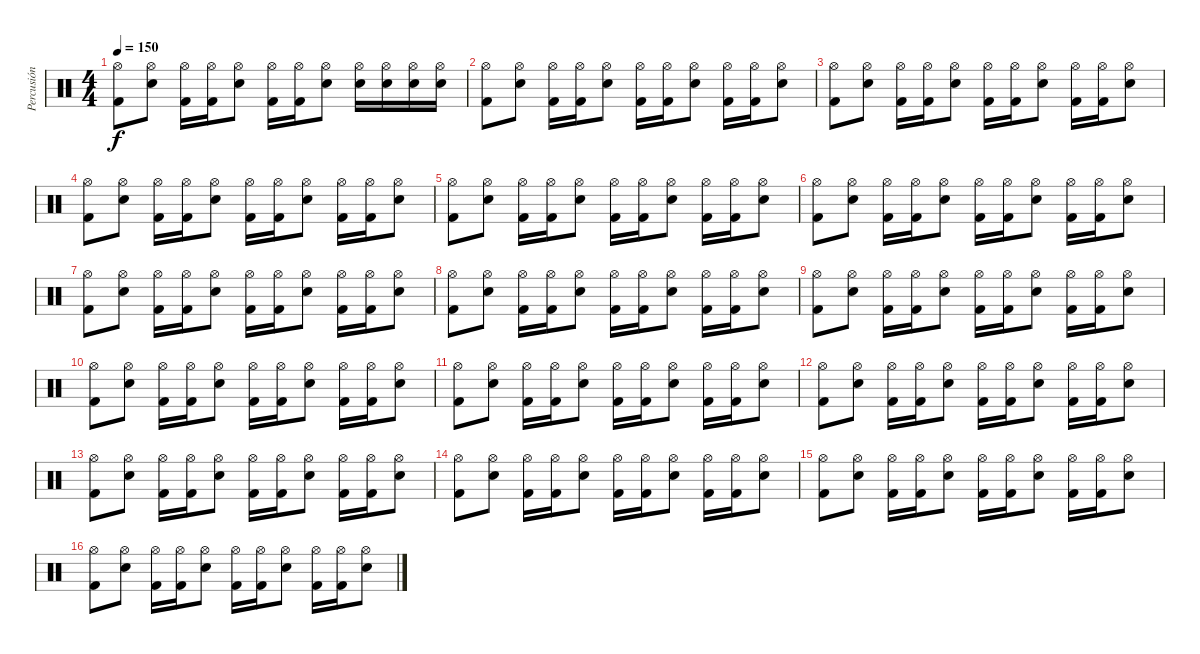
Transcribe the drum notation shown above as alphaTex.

\track ("Percusión" "Percusión") {instrument percussion}
\staff {score}
\articulation defaults
\ts (4 4)
\tempo 150
\clef neutral
\ks c
("Kick (hit) 2" "Hi-Hat (open)").8{dy f} ("Electric Snare (hit)" "Hi-Hat (open)").8 ("Kick (hit) 2" "Hi-Hat (open)").16 ("Kick (hit) 2" "Hi-Hat (open)").16 ("Electric Snare (hit)" "Hi-Hat (open)").8 ("Kick (hit) 2" "Hi-Hat (open)").16 ("Kick (hit) 2" "Hi-Hat (open)").16 ("Electric Snare (hit)" "Hi-Hat (open)").8 ("Electric Snare (hit)" "Hi-Hat (open)").16 ("Electric Snare (hit)" "Hi-Hat (open)").16 ("Electric Snare (hit)" "Hi-Hat (open)").16 ("Electric Snare (hit)" "Hi-Hat (open)").16 |
("Kick (hit) 2" "Hi-Hat (open)").8 ("Electric Snare (hit)" "Hi-Hat (open)").8 ("Kick (hit) 2" "Hi-Hat (open)").16 ("Kick (hit) 2" "Hi-Hat (open)").16 ("Electric Snare (hit)" "Hi-Hat (open)").8 ("Kick (hit) 2" "Hi-Hat (open)").16 ("Kick (hit) 2" "Hi-Hat (open)").16 ("Electric Snare (hit)" "Hi-Hat (open)").8 ("Kick (hit) 2" "Hi-Hat (open)").16 ("Kick (hit) 2" "Hi-Hat (open)").16 ("Electric Snare (hit)" "Hi-Hat (open)").8 |
("Kick (hit) 2" "Hi-Hat (open)").8 ("Electric Snare (hit)" "Hi-Hat (open)").8 ("Kick (hit) 2" "Hi-Hat (open)").16 ("Kick (hit) 2" "Hi-Hat (open)").16 ("Electric Snare (hit)" "Hi-Hat (open)").8 ("Kick (hit) 2" "Hi-Hat (open)").16 ("Kick (hit) 2" "Hi-Hat (open)").16 ("Electric Snare (hit)" "Hi-Hat (open)").8 ("Kick (hit) 2" "Hi-Hat (open)").16 ("Kick (hit) 2" "Hi-Hat (open)").16 ("Electric Snare (hit)" "Hi-Hat (open)").8 |
("Kick (hit) 2" "Hi-Hat (open)").8 ("Electric Snare (hit)" "Hi-Hat (open)").8 ("Kick (hit) 2" "Hi-Hat (open)").16 ("Kick (hit) 2" "Hi-Hat (open)").16 ("Electric Snare (hit)" "Hi-Hat (open)").8 ("Kick (hit) 2" "Hi-Hat (open)").16 ("Kick (hit) 2" "Hi-Hat (open)").16 ("Electric Snare (hit)" "Hi-Hat (open)").8 ("Kick (hit) 2" "Hi-Hat (open)").16 ("Kick (hit) 2" "Hi-Hat (open)").16 ("Electric Snare (hit)" "Hi-Hat (open)").8 |
("Kick (hit) 2" "Hi-Hat (open)").8 ("Electric Snare (hit)" "Hi-Hat (open)").8 ("Kick (hit) 2" "Hi-Hat (open)").16 ("Kick (hit) 2" "Hi-Hat (open)").16 ("Electric Snare (hit)" "Hi-Hat (open)").8 ("Kick (hit) 2" "Hi-Hat (open)").16 ("Kick (hit) 2" "Hi-Hat (open)").16 ("Electric Snare (hit)" "Hi-Hat (open)").8 ("Kick (hit) 2" "Hi-Hat (open)").16 ("Kick (hit) 2" "Hi-Hat (open)").16 ("Electric Snare (hit)" "Hi-Hat (open)").8 |
("Kick (hit) 2" "Hi-Hat (open)").8 ("Electric Snare (hit)" "Hi-Hat (open)").8 ("Kick (hit) 2" "Hi-Hat (open)").16 ("Kick (hit) 2" "Hi-Hat (open)").16 ("Electric Snare (hit)" "Hi-Hat (open)").8 ("Kick (hit) 2" "Hi-Hat (open)").16 ("Kick (hit) 2" "Hi-Hat (open)").16 ("Electric Snare (hit)" "Hi-Hat (open)").8 ("Kick (hit) 2" "Hi-Hat (open)").16 ("Kick (hit) 2" "Hi-Hat (open)").16 ("Electric Snare (hit)" "Hi-Hat (open)").8 |
("Kick (hit) 2" "Hi-Hat (open)").8 ("Electric Snare (hit)" "Hi-Hat (open)").8 ("Kick (hit) 2" "Hi-Hat (open)").16 ("Kick (hit) 2" "Hi-Hat (open)").16 ("Electric Snare (hit)" "Hi-Hat (open)").8 ("Kick (hit) 2" "Hi-Hat (open)").16 ("Kick (hit) 2" "Hi-Hat (open)").16 ("Electric Snare (hit)" "Hi-Hat (open)").8 ("Kick (hit) 2" "Hi-Hat (open)").16 ("Kick (hit) 2" "Hi-Hat (open)").16 ("Electric Snare (hit)" "Hi-Hat (open)").8 |
("Kick (hit) 2" "Hi-Hat (open)").8 ("Electric Snare (hit)" "Hi-Hat (open)").8 ("Kick (hit) 2" "Hi-Hat (open)").16 ("Kick (hit) 2" "Hi-Hat (open)").16 ("Electric Snare (hit)" "Hi-Hat (open)").8 ("Kick (hit) 2" "Hi-Hat (open)").16 ("Kick (hit) 2" "Hi-Hat (open)").16 ("Electric Snare (hit)" "Hi-Hat (open)").8 ("Kick (hit) 2" "Hi-Hat (open)").16 ("Kick (hit) 2" "Hi-Hat (open)").16 ("Electric Snare (hit)" "Hi-Hat (open)").8 |
("Kick (hit) 2" "Hi-Hat (open)").8 ("Electric Snare (hit)" "Hi-Hat (open)").8 ("Kick (hit) 2" "Hi-Hat (open)").16 ("Kick (hit) 2" "Hi-Hat (open)").16 ("Electric Snare (hit)" "Hi-Hat (open)").8 ("Kick (hit) 2" "Hi-Hat (open)").16 ("Kick (hit) 2" "Hi-Hat (open)").16 ("Electric Snare (hit)" "Hi-Hat (open)").8 ("Kick (hit) 2" "Hi-Hat (open)").16 ("Kick (hit) 2" "Hi-Hat (open)").16 ("Electric Snare (hit)" "Hi-Hat (open)").8 |
("Kick (hit) 2" "Hi-Hat (open)").8 ("Electric Snare (hit)" "Hi-Hat (open)").8 ("Kick (hit) 2" "Hi-Hat (open)").16 ("Kick (hit) 2" "Hi-Hat (open)").16 ("Electric Snare (hit)" "Hi-Hat (open)").8 ("Kick (hit) 2" "Hi-Hat (open)").16 ("Kick (hit) 2" "Hi-Hat (open)").16 ("Electric Snare (hit)" "Hi-Hat (open)").8 ("Kick (hit) 2" "Hi-Hat (open)").16 ("Kick (hit) 2" "Hi-Hat (open)").16 ("Electric Snare (hit)" "Hi-Hat (open)").8 |
("Kick (hit) 2" "Hi-Hat (open)").8 ("Electric Snare (hit)" "Hi-Hat (open)").8 ("Kick (hit) 2" "Hi-Hat (open)").16 ("Kick (hit) 2" "Hi-Hat (open)").16 ("Electric Snare (hit)" "Hi-Hat (open)").8 ("Kick (hit) 2" "Hi-Hat (open)").16 ("Kick (hit) 2" "Hi-Hat (open)").16 ("Electric Snare (hit)" "Hi-Hat (open)").8 ("Kick (hit) 2" "Hi-Hat (open)").16 ("Kick (hit) 2" "Hi-Hat (open)").16 ("Electric Snare (hit)" "Hi-Hat (open)").8 |
("Kick (hit) 2" "Hi-Hat (open)").8 ("Electric Snare (hit)" "Hi-Hat (open)").8 ("Kick (hit) 2" "Hi-Hat (open)").16 ("Kick (hit) 2" "Hi-Hat (open)").16 ("Electric Snare (hit)" "Hi-Hat (open)").8 ("Kick (hit) 2" "Hi-Hat (open)").16 ("Kick (hit) 2" "Hi-Hat (open)").16 ("Electric Snare (hit)" "Hi-Hat (open)").8 ("Kick (hit) 2" "Hi-Hat (open)").16 ("Kick (hit) 2" "Hi-Hat (open)").16 ("Electric Snare (hit)" "Hi-Hat (open)").8 |
("Kick (hit) 2" "Hi-Hat (open)").8 ("Electric Snare (hit)" "Hi-Hat (open)").8 ("Kick (hit) 2" "Hi-Hat (open)").16 ("Kick (hit) 2" "Hi-Hat (open)").16 ("Electric Snare (hit)" "Hi-Hat (open)").8 ("Kick (hit) 2" "Hi-Hat (open)").16 ("Kick (hit) 2" "Hi-Hat (open)").16 ("Electric Snare (hit)" "Hi-Hat (open)").8 ("Kick (hit) 2" "Hi-Hat (open)").16 ("Kick (hit) 2" "Hi-Hat (open)").16 ("Electric Snare (hit)" "Hi-Hat (open)").8 |
("Kick (hit) 2" "Hi-Hat (open)").8 ("Electric Snare (hit)" "Hi-Hat (open)").8 ("Kick (hit) 2" "Hi-Hat (open)").16 ("Kick (hit) 2" "Hi-Hat (open)").16 ("Electric Snare (hit)" "Hi-Hat (open)").8 ("Kick (hit) 2" "Hi-Hat (open)").16 ("Kick (hit) 2" "Hi-Hat (open)").16 ("Electric Snare (hit)" "Hi-Hat (open)").8 ("Kick (hit) 2" "Hi-Hat (open)").16 ("Kick (hit) 2" "Hi-Hat (open)").16 ("Electric Snare (hit)" "Hi-Hat (open)").8 |
("Kick (hit) 2" "Hi-Hat (open)").8 ("Electric Snare (hit)" "Hi-Hat (open)").8 ("Kick (hit) 2" "Hi-Hat (open)").16 ("Kick (hit) 2" "Hi-Hat (open)").16 ("Electric Snare (hit)" "Hi-Hat (open)").8 ("Kick (hit) 2" "Hi-Hat (open)").16 ("Kick (hit) 2" "Hi-Hat (open)").16 ("Electric Snare (hit)" "Hi-Hat (open)").8 ("Kick (hit) 2" "Hi-Hat (open)").16 ("Kick (hit) 2" "Hi-Hat (open)").16 ("Electric Snare (hit)" "Hi-Hat (open)").8 |
("Kick (hit) 2" "Hi-Hat (open)").8 ("Electric Snare (hit)" "Hi-Hat (open)").8 ("Kick (hit) 2" "Hi-Hat (open)").16 ("Kick (hit) 2" "Hi-Hat (open)").16 ("Electric Snare (hit)" "Hi-Hat (open)").8 ("Kick (hit) 2" "Hi-Hat (open)").16 ("Kick (hit) 2" "Hi-Hat (open)").16 ("Electric Snare (hit)" "Hi-Hat (open)").8 ("Kick (hit) 2" "Hi-Hat (open)").16 ("Kick (hit) 2" "Hi-Hat (open)").16 ("Electric Snare (hit)" "Hi-Hat (open)").8
